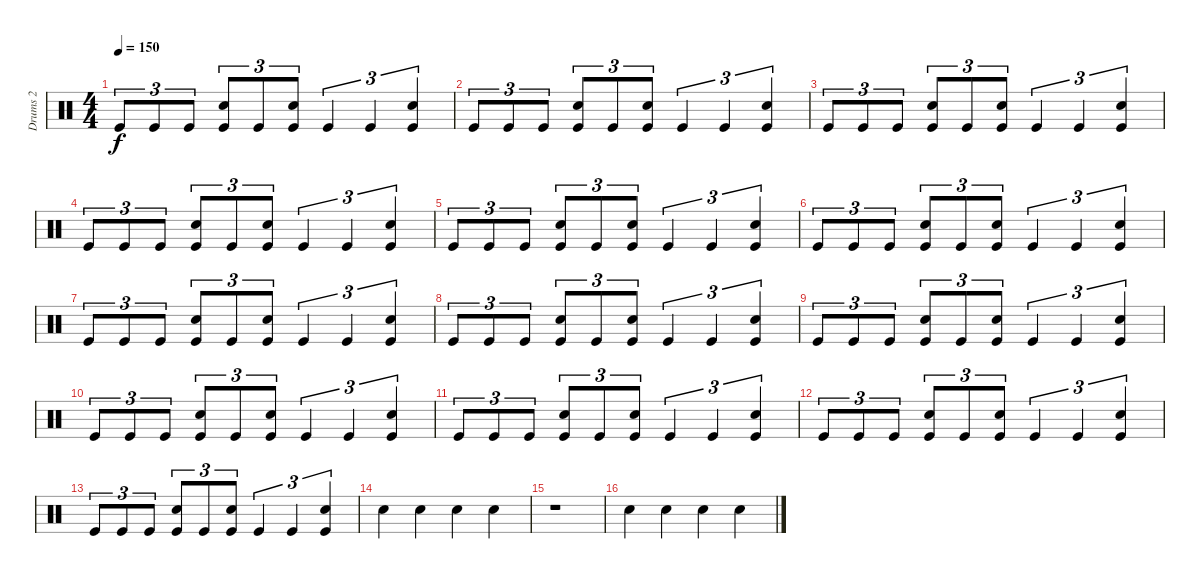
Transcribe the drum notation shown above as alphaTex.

\track ("Drums 2" "Drums 2") {instrument percussion}
\staff {score}
\articulation defaults
\ts (4 4)
\tempo 150
\clef neutral
\ks c "Kick (hit)".8{tu (3 2) dy f} "Kick (hit)".8{tu (3 2)} "Kick (hit)".8{tu (3 2)}
("Snare (hit) 2" "Kick (hit)").8{tu (3 2)} "Kick (hit)".8{tu (3 2)} ("Snare (hit) 2" "Kick (hit)").8{tu (3 2)} "Kick (hit)".4{tu (3 2)} "Kick (hit)".4{tu (3 2)} ("Snare (hit) 2" "Kick (hit)").4{tu (3 2)} |
"Kick (hit)".8{tu (3 2)} "Kick (hit)".8{tu (3 2)} "Kick (hit)".8{tu (3 2)} ("Snare (hit) 2" "Kick (hit)").8{tu (3 2)} "Kick (hit)".8{tu (3 2)} ("Snare (hit) 2" "Kick (hit)").8{tu (3 2)} "Kick (hit)".4{tu (3 2)} "Kick (hit)".4{tu (3 2)} ("Snare (hit) 2" "Kick (hit)").4{tu (3 2)} |
"Kick (hit)".8{tu (3 2)} "Kick (hit)".8{tu (3 2)} "Kick (hit)".8{tu (3 2)} ("Snare (hit) 2" "Kick (hit)").8{tu (3 2)} "Kick (hit)".8{tu (3 2)} ("Snare (hit) 2" "Kick (hit)").8{tu (3 2)} "Kick (hit)".4{tu (3 2)} "Kick (hit)".4{tu (3 2)} ("Snare (hit) 2" "Kick (hit)").4{tu (3 2)} |
"Kick (hit)".8{tu (3 2)} "Kick (hit)".8{tu (3 2)} "Kick (hit)".8{tu (3 2)} ("Snare (hit) 2" "Kick (hit)").8{tu (3 2)} "Kick (hit)".8{tu (3 2)} ("Snare (hit) 2" "Kick (hit)").8{tu (3 2)} "Kick (hit)".4{tu (3 2)} "Kick (hit)".4{tu (3 2)} ("Snare (hit) 2" "Kick (hit)").4{tu (3 2)} |
"Kick (hit)".8{tu (3 2)} "Kick (hit)".8{tu (3 2)} "Kick (hit)".8{tu (3 2)} ("Snare (hit) 2" "Kick (hit)").8{tu (3 2)} "Kick (hit)".8{tu (3 2)} ("Snare (hit) 2" "Kick (hit)").8{tu (3 2)} "Kick (hit)".4{tu (3 2)} "Kick (hit)".4{tu (3 2)} ("Snare (hit) 2" "Kick (hit)").4{tu (3 2)} |
"Kick (hit)".8{tu (3 2)} "Kick (hit)".8{tu (3 2)} "Kick (hit)".8{tu (3 2)} ("Snare (hit) 2" "Kick (hit)").8{tu (3 2)} "Kick (hit)".8{tu (3 2)} ("Snare (hit) 2" "Kick (hit)").8{tu (3 2)} "Kick (hit)".4{tu (3 2)} "Kick (hit)".4{tu (3 2)} ("Snare (hit) 2" "Kick (hit)").4{tu (3 2)} |
"Kick (hit)".8{tu (3 2)} "Kick (hit)".8{tu (3 2)} "Kick (hit)".8{tu (3 2)} ("Snare (hit) 2" "Kick (hit)").8{tu (3 2)} "Kick (hit)".8{tu (3 2)} ("Snare (hit) 2" "Kick (hit)").8{tu (3 2)} "Kick (hit)".4{tu (3 2)} "Kick (hit)".4{tu (3 2)} ("Snare (hit) 2" "Kick (hit)").4{tu (3 2)} |
"Kick (hit)".8{tu (3 2)} "Kick (hit)".8{tu (3 2)} "Kick (hit)".8{tu (3 2)} ("Snare (hit) 2" "Kick (hit)").8{tu (3 2)} "Kick (hit)".8{tu (3 2)} ("Snare (hit) 2" "Kick (hit)").8{tu (3 2)} "Kick (hit)".4{tu (3 2)} "Kick (hit)".4{tu (3 2)} ("Snare (hit) 2" "Kick (hit)").4{tu (3 2)} |
"Kick (hit)".8{tu (3 2)} "Kick (hit)".8{tu (3 2)} "Kick (hit)".8{tu (3 2)} ("Snare (hit) 2" "Kick (hit)").8{tu (3 2)} "Kick (hit)".8{tu (3 2)} ("Snare (hit) 2" "Kick (hit)").8{tu (3 2)} "Kick (hit)".4{tu (3 2)} "Kick (hit)".4{tu (3 2)} ("Snare (hit) 2" "Kick (hit)").4{tu (3 2)} |
"Kick (hit)".8{tu (3 2)} "Kick (hit)".8{tu (3 2)} "Kick (hit)".8{tu (3 2)} ("Snare (hit) 2" "Kick (hit)").8{tu (3 2)} "Kick (hit)".8{tu (3 2)} ("Snare (hit) 2" "Kick (hit)").8{tu (3 2)} "Kick (hit)".4{tu (3 2)} "Kick (hit)".4{tu (3 2)} ("Snare (hit) 2" "Kick (hit)").4{tu (3 2)} |
"Kick (hit)".8{tu (3 2)} "Kick (hit)".8{tu (3 2)} "Kick (hit)".8{tu (3 2)} ("Snare (hit) 2" "Kick (hit)").8{tu (3 2)} "Kick (hit)".8{tu (3 2)} ("Snare (hit) 2" "Kick (hit)").8{tu (3 2)} "Kick (hit)".4{tu (3 2)} "Kick (hit)".4{tu (3 2)} ("Snare (hit) 2" "Kick (hit)").4{tu (3 2)} |
"Kick (hit)".8{tu (3 2)} "Kick (hit)".8{tu (3 2)} "Kick (hit)".8{tu (3 2)} ("Snare (hit) 2" "Kick (hit)").8{tu (3 2)} "Kick (hit)".8{tu (3 2)} ("Snare (hit) 2" "Kick (hit)").8{tu (3 2)} "Kick (hit)".4{tu (3 2)} "Kick (hit)".4{tu (3 2)} ("Snare (hit) 2" "Kick (hit)").4{tu (3 2)} |
"Kick (hit)".8{tu (3 2)} "Kick (hit)".8{tu (3 2)} "Kick (hit)".8{tu (3 2)} ("Snare (hit) 2" "Kick (hit)").8{tu (3 2)} "Kick (hit)".8{tu (3 2)} ("Snare (hit) 2" "Kick (hit)").8{tu (3 2)} "Kick (hit)".4{tu (3 2)} "Kick (hit)".4{tu (3 2)} ("Snare (hit) 2" "Kick (hit)").4{tu (3 2)} |
"Snare (hit) 2".4 "Snare (hit) 2".4 "Snare (hit) 2".4 "Snare (hit) 2".4 |
r.1 |
"Snare (hit) 2".4 "Snare (hit) 2".4 "Snare (hit) 2".4 "Snare (hit) 2".4
